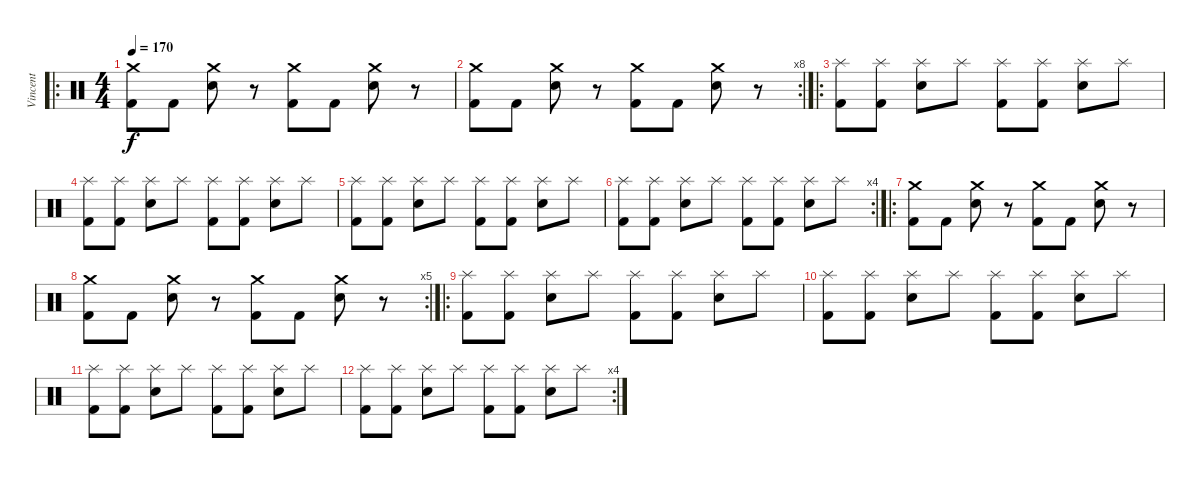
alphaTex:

\track ("Vincent" "Vincent") {instrument percussion}
\staff {score}
\articulation defaults
\ro
\ts (4 4)
\tempo 170
\clef neutral
\ks c
("Crash medium (hit)" "Kick (hit) 2").8{dy f} "Kick (hit) 2".8 ("Crash medium (hit)" "Snare (hit) 2").8 r.8 ("Crash medium (hit)" "Kick (hit) 2").8 "Kick (hit) 2".8 ("Crash medium (hit)" "Snare (hit) 2").8 r.8 |
\rc 8
("Crash medium (hit)" "Kick (hit) 2").8 "Kick (hit) 2".8 ("Crash medium (hit)" "Snare (hit) 2").8 r.8 ("Crash medium (hit)" "Kick (hit) 2").8 "Kick (hit) 2".8 ("Crash medium (hit)" "Snare (hit) 2").8 r.8 |
\ro
("Splash (hit)" "Kick (hit) 2").8 ("Splash (hit)" "Kick (hit) 2").8 ("Splash (hit)" "Snare (hit) 2").8 "Splash (hit)".8 ("Splash (hit)" "Kick (hit) 2").8 ("Splash (hit)" "Kick (hit) 2").8 ("Splash (hit)" "Snare (hit) 2").8 "Splash (hit)".8 |
("Splash (hit)" "Kick (hit) 2").8 ("Splash (hit)" "Kick (hit) 2").8 ("Splash (hit)" "Snare (hit) 2").8 "Splash (hit)".8 ("Splash (hit)" "Kick (hit) 2").8 ("Splash (hit)" "Kick (hit) 2").8 ("Splash (hit)" "Snare (hit) 2").8 "Splash (hit)".8 |
("Splash (hit)" "Kick (hit) 2").8 ("Splash (hit)" "Kick (hit) 2").8 ("Splash (hit)" "Snare (hit) 2").8 "Splash (hit)".8 ("Splash (hit)" "Kick (hit) 2").8 ("Splash (hit)" "Kick (hit) 2").8 ("Splash (hit)" "Snare (hit) 2").8 "Splash (hit)".8 |
\rc 4
("Splash (hit)" "Kick (hit) 2").8 ("Splash (hit)" "Kick (hit) 2").8 ("Splash (hit)" "Snare (hit) 2").8 "Splash (hit)".8 ("Splash (hit)" "Kick (hit) 2").8 ("Splash (hit)" "Kick (hit) 2").8 ("Splash (hit)" "Snare (hit) 2").8 "Splash (hit)".8 |
\ro
("Crash medium (hit)" "Kick (hit) 2").8 "Kick (hit) 2".8 ("Crash medium (hit)" "Snare (hit) 2").8 r.8 ("Crash medium (hit)" "Kick (hit) 2").8 "Kick (hit) 2".8 ("Crash medium (hit)" "Snare (hit) 2").8 r.8 |
\rc 5
("Crash medium (hit)" "Kick (hit) 2").8 "Kick (hit) 2".8 ("Crash medium (hit)" "Snare (hit) 2").8 r.8 ("Crash medium (hit)" "Kick (hit) 2").8 "Kick (hit) 2".8 ("Crash medium (hit)" "Snare (hit) 2").8 r.8 |
\ro
("Splash (hit)" "Kick (hit) 2").8 ("Splash (hit)" "Kick (hit) 2").8 ("Splash (hit)" "Snare (hit) 2").8 "Splash (hit)".8 ("Splash (hit)" "Kick (hit) 2").8 ("Splash (hit)" "Kick (hit) 2").8 ("Splash (hit)" "Snare (hit) 2").8 "Splash (hit)".8 |
("Splash (hit)" "Kick (hit) 2").8 ("Splash (hit)" "Kick (hit) 2").8 ("Splash (hit)" "Snare (hit) 2").8 "Splash (hit)".8 ("Splash (hit)" "Kick (hit) 2").8 ("Splash (hit)" "Kick (hit) 2").8 ("Splash (hit)" "Snare (hit) 2").8 "Splash (hit)".8 |
("Splash (hit)" "Kick (hit) 2").8 ("Splash (hit)" "Kick (hit) 2").8 ("Splash (hit)" "Snare (hit) 2").8 "Splash (hit)".8 ("Splash (hit)" "Kick (hit) 2").8 ("Splash (hit)" "Kick (hit) 2").8 ("Splash (hit)" "Snare (hit) 2").8 "Splash (hit)".8 |
\rc 4
("Splash (hit)" "Kick (hit) 2").8 ("Splash (hit)" "Kick (hit) 2").8 ("Splash (hit)" "Snare (hit) 2").8 "Splash (hit)".8 ("Splash (hit)" "Kick (hit) 2").8 ("Splash (hit)" "Kick (hit) 2").8 ("Splash (hit)" "Snare (hit) 2").8 "Splash (hit)".8
